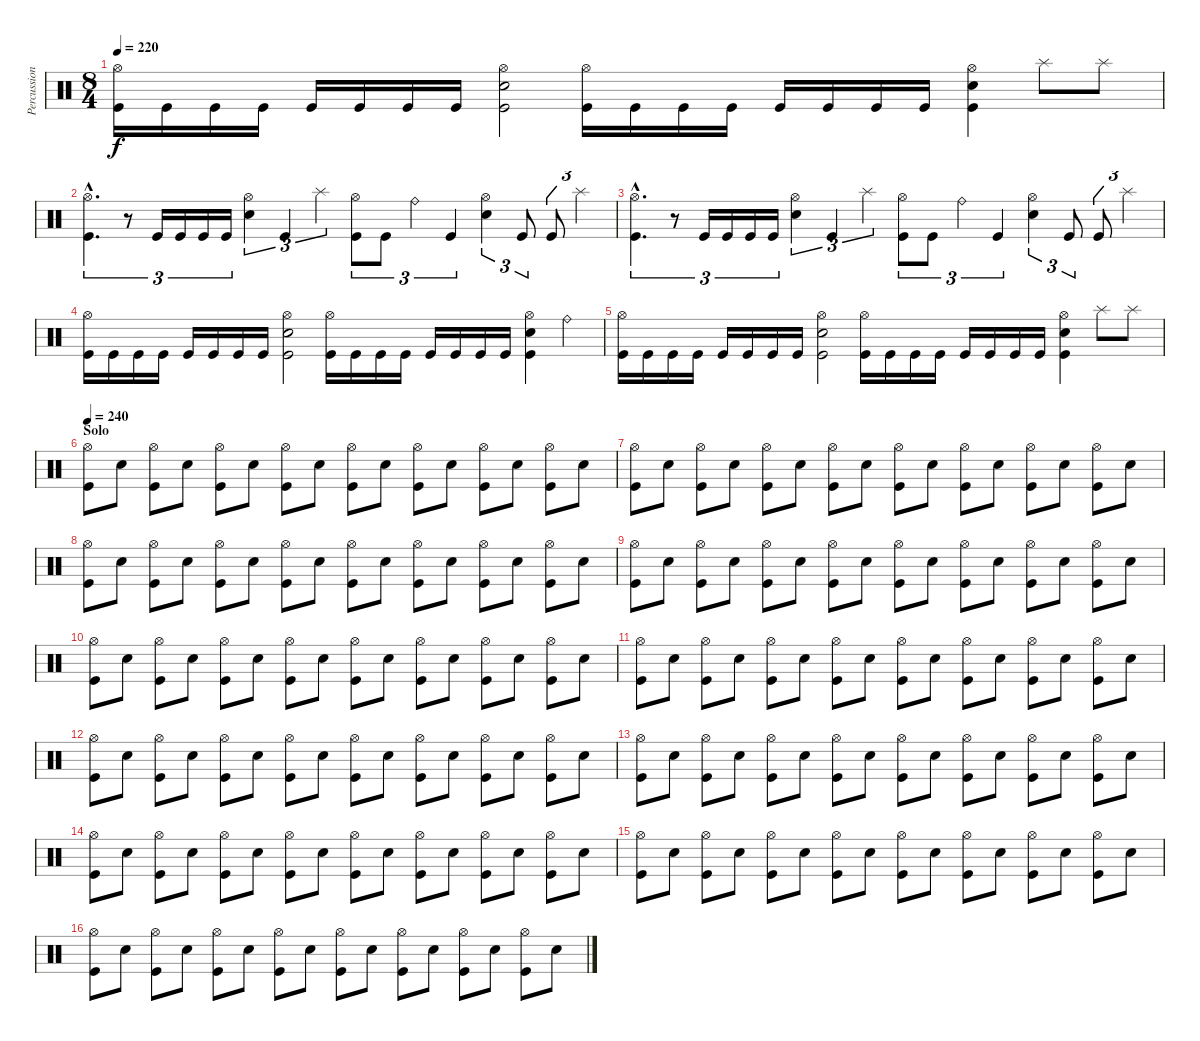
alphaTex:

\track ("Percussion" "Percussion") {instrument percussion}
\staff {score}
\articulation defaults
\ts (8 4)
\tempo 220
\clef neutral
\ks c
("Hi-Hat (open)" "Kick (hit)").16{dy f} "Kick (hit)".16 "Kick (hit)".16 "Kick (hit)".16 "Kick (hit)".16 "Kick (hit)".16 "Kick (hit)".16 "Kick (hit)".16 ("Hi-Hat (open)" "Snare (hit) 2" "Kick (hit)").2 ("Hi-Hat (open)" "Kick (hit)").16 "Kick (hit)".16 "Kick (hit)".16 "Kick (hit)".16 "Kick (hit)".16 "Kick (hit)".16 "Kick (hit)".16 "Kick (hit)".16 ("Hi-Hat (open)" "Snare (hit) 2" "Kick (hit)").4 "Splash (hit)".8 "Splash (hit)".8 |
("Hi-Hat (open)"{hac} "Kick (hit)"{hac}).4{d tu (3 2)} r.8{tu (3 2)} "Kick (hit)".16{tu (3 2)} "Kick (hit)".16{tu (3 2)} "Kick (hit)".16{tu (3 2)} "Kick (hit)".16{tu (3 2)} ("Hi-Hat (open)" "Snare (hit) 2").4{tu (3 2)} "Kick (hit)".4{tu (3 2)} "Splash (hit)".4{tu (3 2)} ("Hi-Hat (open)" "Kick (hit)").8{tu (3 2)} "Kick (hit)".8{tu (3 2)} "Ride (bell)".4{tu (3 2)} "Kick (hit)".4{tu (3 2)} ("Hi-Hat (open)" "Snare (hit) 2").4{tu (3 2)} "Kick (hit)".8{tu (3 2)} "Kick (hit)".8{tu (3 2)} "Splash (hit)".4{tu (3 2)} |
("Hi-Hat (open)"{hac} "Kick (hit)"{hac}).4{d tu (3 2)} r.8{tu (3 2)} "Kick (hit)".16{tu (3 2)} "Kick (hit)".16{tu (3 2)} "Kick (hit)".16{tu (3 2)} "Kick (hit)".16{tu (3 2)} ("Hi-Hat (open)" "Snare (hit) 2").4{tu (3 2)} "Kick (hit)".4{tu (3 2)} "Splash (hit)".4{tu (3 2)} ("Hi-Hat (open)" "Kick (hit)").8{tu (3 2)} "Kick (hit)".8{tu (3 2)} "Ride (bell)".4{tu (3 2)} "Kick (hit)".4{tu (3 2)} ("Hi-Hat (open)" "Snare (hit) 2").4{tu (3 2)} "Kick (hit)".8{tu (3 2)} "Kick (hit)".8{tu (3 2)} "Splash (hit)".4{tu (3 2)} |
("Hi-Hat (open)" "Kick (hit)").16 "Kick (hit)".16 "Kick (hit)".16 "Kick (hit)".16 "Kick (hit)".16 "Kick (hit)".16 "Kick (hit)".16 "Kick (hit)".16 ("Hi-Hat (open)" "Snare (hit) 2" "Kick (hit)").2 ("Hi-Hat (open)" "Kick (hit)").16 "Kick (hit)".16 "Kick (hit)".16 "Kick (hit)".16 "Kick (hit)".16 "Kick (hit)".16 "Kick (hit)".16 "Kick (hit)".16 ("Hi-Hat (open)" "Snare (hit) 2" "Kick (hit)").4 "Ride (bell)".4 |
("Hi-Hat (open)" "Kick (hit)").16 "Kick (hit)".16 "Kick (hit)".16 "Kick (hit)".16 "Kick (hit)".16 "Kick (hit)".16 "Kick (hit)".16 "Kick (hit)".16 ("Hi-Hat (open)" "Snare (hit) 2" "Kick (hit)").2 ("Hi-Hat (open)" "Kick (hit)").16 "Kick (hit)".16 "Kick (hit)".16 "Kick (hit)".16 "Kick (hit)".16 "Kick (hit)".16 "Kick (hit)".16 "Kick (hit)".16 ("Hi-Hat (open)" "Snare (hit) 2" "Kick (hit)").4 "Splash (hit)".8 "Splash (hit)".8 |
\section ("" "Solo")
\tempo 240
("Hi-Hat (open)" "Kick (hit)").8 "Snare (hit) 2".8 ("Hi-Hat (open)" "Kick (hit)").8 "Snare (hit) 2".8 ("Hi-Hat (open)" "Kick (hit)").8 "Snare (hit) 2".8 ("Hi-Hat (open)" "Kick (hit)").8 "Snare (hit) 2".8 ("Hi-Hat (open)" "Kick (hit)").8 "Snare (hit) 2".8 ("Hi-Hat (open)" "Kick (hit)").8 "Snare (hit) 2".8 ("Hi-Hat (open)" "Kick (hit)").8 "Snare (hit) 2".8 ("Hi-Hat (open)" "Kick (hit)").8 "Snare (hit) 2".8 |
("Hi-Hat (open)" "Kick (hit)").8 "Snare (hit) 2".8 ("Hi-Hat (open)" "Kick (hit)").8 "Snare (hit) 2".8 ("Hi-Hat (open)" "Kick (hit)").8 "Snare (hit) 2".8 ("Hi-Hat (open)" "Kick (hit)").8 "Snare (hit) 2".8 ("Hi-Hat (open)" "Kick (hit)").8 "Snare (hit) 2".8 ("Hi-Hat (open)" "Kick (hit)").8 "Snare (hit) 2".8 ("Hi-Hat (open)" "Kick (hit)").8 "Snare (hit) 2".8 ("Hi-Hat (open)" "Kick (hit)").8 "Snare (hit) 2".8 |
("Hi-Hat (open)" "Kick (hit)").8 "Snare (hit) 2".8 ("Hi-Hat (open)" "Kick (hit)").8 "Snare (hit) 2".8 ("Hi-Hat (open)" "Kick (hit)").8 "Snare (hit) 2".8 ("Hi-Hat (open)" "Kick (hit)").8 "Snare (hit) 2".8 ("Hi-Hat (open)" "Kick (hit)").8 "Snare (hit) 2".8 ("Hi-Hat (open)" "Kick (hit)").8 "Snare (hit) 2".8 ("Hi-Hat (open)" "Kick (hit)").8 "Snare (hit) 2".8 ("Hi-Hat (open)" "Kick (hit)").8 "Snare (hit) 2".8 |
("Hi-Hat (open)" "Kick (hit)").8 "Snare (hit) 2".8 ("Hi-Hat (open)" "Kick (hit)").8 "Snare (hit) 2".8 ("Hi-Hat (open)" "Kick (hit)").8 "Snare (hit) 2".8 ("Hi-Hat (open)" "Kick (hit)").8 "Snare (hit) 2".8 ("Hi-Hat (open)" "Kick (hit)").8 "Snare (hit) 2".8 ("Hi-Hat (open)" "Kick (hit)").8 "Snare (hit) 2".8 ("Hi-Hat (open)" "Kick (hit)").8 "Snare (hit) 2".8 ("Hi-Hat (open)" "Kick (hit)").8 "Snare (hit) 2".8 |
("Hi-Hat (open)" "Kick (hit)").8 "Snare (hit) 2".8 ("Hi-Hat (open)" "Kick (hit)").8 "Snare (hit) 2".8 ("Hi-Hat (open)" "Kick (hit)").8 "Snare (hit) 2".8 ("Hi-Hat (open)" "Kick (hit)").8 "Snare (hit) 2".8 ("Hi-Hat (open)" "Kick (hit)").8 "Snare (hit) 2".8 ("Hi-Hat (open)" "Kick (hit)").8 "Snare (hit) 2".8 ("Hi-Hat (open)" "Kick (hit)").8 "Snare (hit) 2".8 ("Hi-Hat (open)" "Kick (hit)").8 "Snare (hit) 2".8 |
("Hi-Hat (open)" "Kick (hit)").8 "Snare (hit) 2".8 ("Hi-Hat (open)" "Kick (hit)").8 "Snare (hit) 2".8 ("Hi-Hat (open)" "Kick (hit)").8 "Snare (hit) 2".8 ("Hi-Hat (open)" "Kick (hit)").8 "Snare (hit) 2".8 ("Hi-Hat (open)" "Kick (hit)").8 "Snare (hit) 2".8 ("Hi-Hat (open)" "Kick (hit)").8 "Snare (hit) 2".8 ("Hi-Hat (open)" "Kick (hit)").8 "Snare (hit) 2".8 ("Hi-Hat (open)" "Kick (hit)").8 "Snare (hit) 2".8 |
("Hi-Hat (open)" "Kick (hit)").8 "Snare (hit) 2".8 ("Hi-Hat (open)" "Kick (hit)").8 "Snare (hit) 2".8 ("Hi-Hat (open)" "Kick (hit)").8 "Snare (hit) 2".8 ("Hi-Hat (open)" "Kick (hit)").8 "Snare (hit) 2".8 ("Hi-Hat (open)" "Kick (hit)").8 "Snare (hit) 2".8 ("Hi-Hat (open)" "Kick (hit)").8 "Snare (hit) 2".8 ("Hi-Hat (open)" "Kick (hit)").8 "Snare (hit) 2".8 ("Hi-Hat (open)" "Kick (hit)").8 "Snare (hit) 2".8 |
("Hi-Hat (open)" "Kick (hit)").8 "Snare (hit) 2".8 ("Hi-Hat (open)" "Kick (hit)").8 "Snare (hit) 2".8 ("Hi-Hat (open)" "Kick (hit)").8 "Snare (hit) 2".8 ("Hi-Hat (open)" "Kick (hit)").8 "Snare (hit) 2".8 ("Hi-Hat (open)" "Kick (hit)").8 "Snare (hit) 2".8 ("Hi-Hat (open)" "Kick (hit)").8 "Snare (hit) 2".8 ("Hi-Hat (open)" "Kick (hit)").8 "Snare (hit) 2".8 ("Hi-Hat (open)" "Kick (hit)").8 "Snare (hit) 2".8 |
("Hi-Hat (open)" "Kick (hit)").8 "Snare (hit) 2".8 ("Hi-Hat (open)" "Kick (hit)").8 "Snare (hit) 2".8 ("Hi-Hat (open)" "Kick (hit)").8 "Snare (hit) 2".8 ("Hi-Hat (open)" "Kick (hit)").8 "Snare (hit) 2".8 ("Hi-Hat (open)" "Kick (hit)").8 "Snare (hit) 2".8 ("Hi-Hat (open)" "Kick (hit)").8 "Snare (hit) 2".8 ("Hi-Hat (open)" "Kick (hit)").8 "Snare (hit) 2".8 ("Hi-Hat (open)" "Kick (hit)").8 "Snare (hit) 2".8 |
("Hi-Hat (open)" "Kick (hit)").8 "Snare (hit) 2".8 ("Hi-Hat (open)" "Kick (hit)").8 "Snare (hit) 2".8 ("Hi-Hat (open)" "Kick (hit)").8 "Snare (hit) 2".8 ("Hi-Hat (open)" "Kick (hit)").8 "Snare (hit) 2".8 ("Hi-Hat (open)" "Kick (hit)").8 "Snare (hit) 2".8 ("Hi-Hat (open)" "Kick (hit)").8 "Snare (hit) 2".8 ("Hi-Hat (open)" "Kick (hit)").8 "Snare (hit) 2".8 ("Hi-Hat (open)" "Kick (hit)").8 "Snare (hit) 2".8 |
("Hi-Hat (open)" "Kick (hit)").8 "Snare (hit) 2".8 ("Hi-Hat (open)" "Kick (hit)").8 "Snare (hit) 2".8 ("Hi-Hat (open)" "Kick (hit)").8 "Snare (hit) 2".8 ("Hi-Hat (open)" "Kick (hit)").8 "Snare (hit) 2".8 ("Hi-Hat (open)" "Kick (hit)").8 "Snare (hit) 2".8 ("Hi-Hat (open)" "Kick (hit)").8 "Snare (hit) 2".8 ("Hi-Hat (open)" "Kick (hit)").8 "Snare (hit) 2".8 ("Hi-Hat (open)" "Kick (hit)").8 "Snare (hit) 2".8
